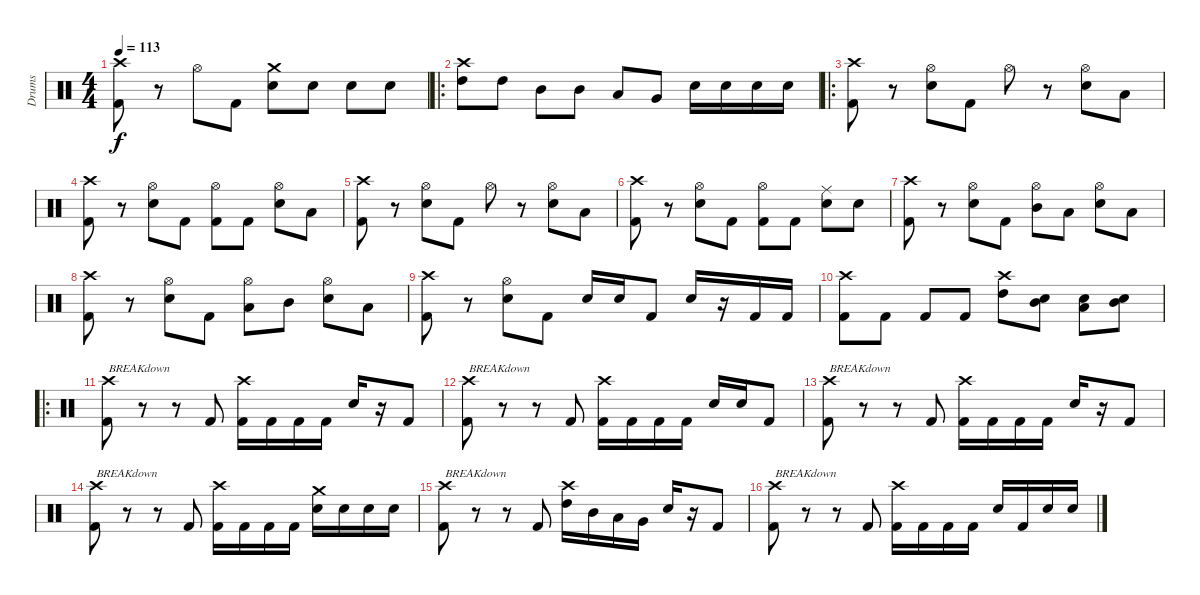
\track ("Drums" "Drums") {instrument percussion}
\staff {score}
\articulation defaults
\ts (4 4)
\tempo 113
\clef neutral
\ks c
("Crash high (hit)" "Kick (hit) 2").8{dy f} r.8 "Hi-Hat (open)".8 "Kick (hit) 2".8 ("Crash medium (hit)" "Snare (hit) 2").8 "Snare (hit) 2".8 "Snare (hit) 2".8 "Snare (hit) 2".8 |
\ro
("Crash high (hit)" "High Tom (hit)").8 "High Tom (hit)".8 "Mid Tom (hit)".8 "Mid Tom (hit)".8 "Low Tom (hit)".8 "Very Low Tom (hit)".8 "Snare (hit) 2".16 "Snare (hit) 2".16 "Snare (hit) 2".16 "Snare (hit) 2".16 |
\ro
("Crash high (hit)" "Kick (hit) 2").8 r.8 ("Hi-Hat (open)" "Snare (hit) 2").8 "Kick (hit) 2".8 "Hi-Hat (open)".8 r.8 ("Hi-Hat (open)" "Snare (hit) 2").8 "Low Tom (hit)".8 |
("Crash high (hit)" "Kick (hit) 2").8 r.8 ("Hi-Hat (open)" "Snare (hit) 2").8 "Kick (hit) 2".8 ("Hi-Hat (open)" "Kick (hit) 2").8 "Kick (hit) 2".8 ("Hi-Hat (open)" "Snare (hit) 2").8 "Low Tom (hit)".8 |
("Crash high (hit)" "Kick (hit) 2").8 r.8 ("Hi-Hat (open)" "Snare (hit) 2").8 "Kick (hit) 2".8 "Hi-Hat (open)".8 r.8 ("Hi-Hat (open)" "Snare (hit) 2").8 "Low Tom (hit)".8 |
("Crash high (hit)" "Kick (hit) 2").8 r.8 ("Hi-Hat (open)" "Snare (hit) 2").8 "Kick (hit) 2".8 ("Hi-Hat (open)" "Kick (hit) 2").8 "Kick (hit) 2".8 ("Ride (middle)" "Snare (hit) 2").8 "Snare (hit) 2".8 |
("Crash high (hit)" "Kick (hit) 2").8 r.8 ("Hi-Hat (open)" "Snare (hit) 2").8 "Kick (hit) 2".8 ("Hi-Hat (open)" "Mid Tom (hit)").8 "Low Tom (hit)".8 ("Hi-Hat (open)" "Snare (hit) 2").8 "Low Tom (hit)".8 |
("Crash high (hit)" "Kick (hit) 2").8 r.8 ("Hi-Hat (open)" "Snare (hit) 2").8 "Kick (hit) 2".8 ("Hi-Hat (open)" "Low Tom (hit)").8 "Mid Tom (hit)".8 ("Hi-Hat (open)" "Snare (hit) 2").8 "Low Tom (hit)".8 |
("Crash high (hit)" "Kick (hit) 2").8 r.8 ("Hi-Hat (open)" "Snare (hit) 2").8 "Kick (hit) 2".8 "Snare (hit) 2".16 "Snare (hit) 2".16 "Kick (hit) 2".8 "Snare (hit) 2".16 r.16 "Kick (hit) 2".16 "Kick (hit) 2".16 |
("Crash high (hit)" "Kick (hit) 2").8 "Kick (hit) 2".8 "Kick (hit) 2".8 "Kick (hit) 2".8 ("Crash high (hit)" "High Tom (hit)").8 ("Snare (hit) 2" "Mid Tom (hit)").8 ("Snare (hit) 2" "Low Tom (hit)").8 ("Snare (hit) 2" "Mid Tom (hit)").8 |
\ro
("Crash high (hit)" "Kick (hit) 2").8{txt "BREAKdown"} r.8 r.8 "Kick (hit) 2".8 ("Crash high (hit)" "Kick (hit) 2").16 "Kick (hit) 2".16 "Kick (hit) 2".16 "Kick (hit) 2".16 "Snare (hit) 2".16 r.16 "Kick (hit) 2".8 |
("Crash high (hit)" "Kick (hit) 2").8{txt "BREAKdown"} r.8 r.8 "Kick (hit) 2".8 ("Crash high (hit)" "Kick (hit) 2").16 "Kick (hit) 2".16 "Kick (hit) 2".16 "Kick (hit) 2".16 "Snare (hit) 2".16 "Snare (hit) 2".16 "Kick (hit) 2".8 |
("Crash high (hit)" "Kick (hit) 2").8{txt "BREAKdown"} r.8 r.8 "Kick (hit) 2".8 ("Crash high (hit)" "Kick (hit) 2").16 "Kick (hit) 2".16 "Kick (hit) 2".16 "Kick (hit) 2".16 "Snare (hit) 2".16 r.16 "Kick (hit) 2".8 |
("Crash high (hit)" "Kick (hit) 2").8{txt "BREAKdown"} r.8 r.8 "Kick (hit) 2".8 ("Crash high (hit)" "Kick (hit) 2").16 "Kick (hit) 2".16 "Kick (hit) 2".16 "Kick (hit) 2".16 ("Crash medium (hit)" "Snare (hit) 2").16 "Snare (hit) 2".16 "Snare (hit) 2".16 "Snare (hit) 2".16 |
("Crash high (hit)" "Kick (hit) 2").8{txt "BREAKdown"} r.8 r.8 "Kick (hit) 2".8 ("Crash high (hit)" "High Tom (hit)").16 "Mid Tom (hit)".16 "Low Tom (hit)".16 "Very Low Tom (hit)".16 "Snare (hit) 2".16 r.16 "Kick (hit) 2".8 |
("Crash high (hit)" "Kick (hit) 2").8{txt "BREAKdown"} r.8 r.8 "Kick (hit) 2".8 ("Crash high (hit)" "Kick (hit) 2").16 "Kick (hit) 2".16 "Kick (hit) 2".16 "Kick (hit) 2".16 "Snare (hit) 2".16 "Kick (hit) 2".16 "Snare (hit) 2".16 "Snare (hit) 2".16
